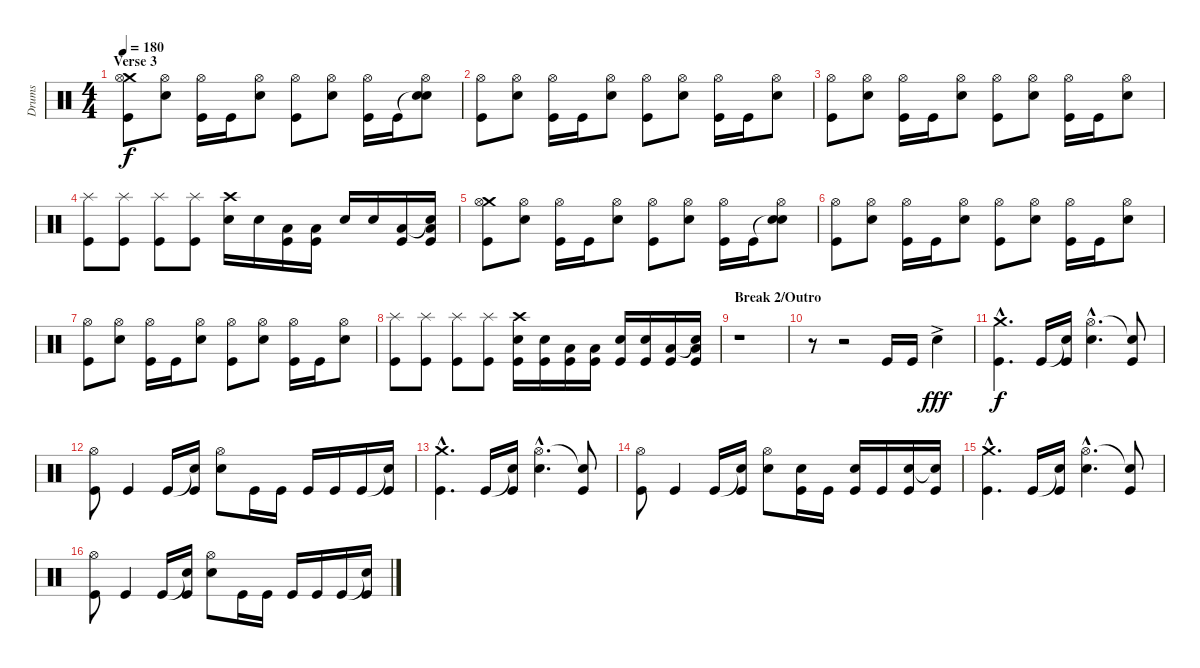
\track ("Drums" "Drums") {instrument percussion}
\staff {score}
\articulation defaults
\ts (4 4)
\section ("" "Verse 3")
\tempo 180
\clef neutral
\ks c
("Crash medium (hit)" "Hi-Hat (open)" "Kick (hit)").8{dy f} ("Hi-Hat (open)" "Electric Snare (hit)").8 ("Hi-Hat (open)" "Kick (hit)").16 "Kick (hit)".16 ("Hi-Hat (open)" "Electric Snare (hit)").8 ("Hi-Hat (open)" "Kick (hit)").8 ("Hi-Hat (open)" "Electric Snare (hit)").8 ("Hi-Hat (open)" "Kick (hit)").16 "Kick (hit)".16 ("Snare (hit)"{t} "Hi-Hat (open)" "Electric Snare (hit)").8 |
("Hi-Hat (open)" "Kick (hit)").8 ("Hi-Hat (open)" "Electric Snare (hit)").8 ("Hi-Hat (open)" "Kick (hit)").16 "Kick (hit)".16 ("Hi-Hat (open)" "Electric Snare (hit)").8 ("Hi-Hat (open)" "Kick (hit)").8 ("Hi-Hat (open)" "Electric Snare (hit)").8 ("Hi-Hat (open)" "Kick (hit)").16 "Kick (hit)".16 ("Hi-Hat (open)" "Electric Snare (hit)").8 |
("Hi-Hat (open)" "Kick (hit)").8 ("Hi-Hat (open)" "Electric Snare (hit)").8 ("Hi-Hat (open)" "Kick (hit)").16 "Kick (hit)".16 ("Hi-Hat (open)" "Electric Snare (hit)").8 ("Hi-Hat (open)" "Kick (hit)").8 ("Hi-Hat (open)" "Electric Snare (hit)").8 ("Hi-Hat (open)" "Kick (hit)").16 "Kick (hit)".16 ("Hi-Hat (open)" "Electric Snare (hit)").8 |
("Splash (hit)" "Kick (hit)").8 ("Splash (hit)" "Kick (hit)").8 ("Splash (hit)" "Kick (hit)").8 ("Splash (hit)" "Kick (hit)").8 ("Crash high (hit)" "Electric Snare (hit)").16 "Electric Snare (hit)".16 ("Low Floor Tom (hit)" "Kick (hit)").16 ("Low Floor Tom (hit)" "Kick (hit)").16 "Electric Snare (hit)".16 "Electric Snare (hit)".16 ("Low Floor Tom (hit)" "Kick (hit)").16 ("Snare (hit)"{t} "Low Floor Tom (hit)" "Kick (hit)").16 |
("Crash medium (hit)" "Hi-Hat (open)" "Kick (hit)").8 ("Hi-Hat (open)" "Electric Snare (hit)").8 ("Hi-Hat (open)" "Kick (hit)").16 "Kick (hit)".16 ("Hi-Hat (open)" "Electric Snare (hit)").8 ("Hi-Hat (open)" "Kick (hit)").8 ("Hi-Hat (open)" "Electric Snare (hit)").8 ("Hi-Hat (open)" "Kick (hit)").16 "Kick (hit)".16 ("Snare (hit)"{t} "Hi-Hat (open)" "Electric Snare (hit)").8 |
("Hi-Hat (open)" "Kick (hit)").8 ("Hi-Hat (open)" "Electric Snare (hit)").8 ("Hi-Hat (open)" "Kick (hit)").16 "Kick (hit)".16 ("Hi-Hat (open)" "Electric Snare (hit)").8 ("Hi-Hat (open)" "Kick (hit)").8 ("Hi-Hat (open)" "Electric Snare (hit)").8 ("Hi-Hat (open)" "Kick (hit)").16 "Kick (hit)".16 ("Hi-Hat (open)" "Electric Snare (hit)").8 |
("Hi-Hat (open)" "Kick (hit)").8 ("Hi-Hat (open)" "Electric Snare (hit)").8 ("Hi-Hat (open)" "Kick (hit)").16 "Kick (hit)".16 ("Hi-Hat (open)" "Electric Snare (hit)").8 ("Hi-Hat (open)" "Kick (hit)").8 ("Hi-Hat (open)" "Electric Snare (hit)").8 ("Hi-Hat (open)" "Kick (hit)").16 "Kick (hit)".16 ("Hi-Hat (open)" "Electric Snare (hit)").8 |
("Splash (hit)" "Kick (hit)").8 ("Splash (hit)" "Kick (hit)").8 ("Splash (hit)" "Kick (hit)").8 ("Splash (hit)" "Kick (hit)").8 ("Crash high (hit)" "Electric Snare (hit)" "Kick (hit)").16 ("Electric Snare (hit)" "Kick (hit)").16 ("Low Floor Tom (hit)" "Kick (hit)").16 ("Low Floor Tom (hit)" "Kick (hit)").16 ("Electric Snare (hit)" "Kick (hit)").16 ("Electric Snare (hit)" "Kick (hit)").16 ("Low Floor Tom (hit)" "Kick (hit)").16 ("Snare (hit)"{t} "Low Floor Tom (hit)" "Kick (hit)").16 |
\section ("" "Break 2/Outro")
r.1 |
r.8 r.2 "Kick (hit)".16 "Kick (hit)".16 "Electric Snare (hit)"{ac}.4{dy fff} |
("Crash medium (hit)"{hac} "Kick (hit)"{hac}).4{d dy f} "Kick (hit)".16 ("Snare (hit)"{t} "Kick (hit)").16 ("Hi-Hat (open)"{hac} "Electric Snare (hit)"{hac}).4{d} ("Snare (hit)"{t} "Kick (hit)").8 |
("Hi-Hat (open)" "Kick (hit)").8 "Kick (hit)".4 "Kick (hit)".16 ("Snare (hit)"{t} "Kick (hit)").16 ("Hi-Hat (open)" "Electric Snare (hit)").8 "Kick (hit)".16 "Kick (hit)".16 "Kick (hit)".16 "Kick (hit)".16 "Kick (hit)".16 ("Snare (hit)"{t} "Kick (hit)").16 |
("Crash medium (hit)"{hac} "Kick (hit)"{hac}).4{d} "Kick (hit)".16 ("Snare (hit)"{t} "Kick (hit)").16 ("Hi-Hat (open)"{hac} "Electric Snare (hit)"{hac}).4{d} ("Snare (hit)"{t} "Kick (hit)").8 |
("Hi-Hat (open)" "Kick (hit)").8 "Kick (hit)".4 "Kick (hit)".16 ("Snare (hit)"{t} "Kick (hit)").16 ("Hi-Hat (open)" "Electric Snare (hit)").8 ("Electric Snare (hit)" "Kick (hit)").16 "Kick (hit)".16 ("Electric Snare (hit)" "Kick (hit)").16 "Kick (hit)".16 ("Electric Snare (hit)" "Kick (hit)").16 ("Snare (hit)"{t} "Kick (hit)").16 |
("Crash medium (hit)"{hac} "Kick (hit)"{hac}).4{d} "Kick (hit)".16 ("Snare (hit)"{t} "Kick (hit)").16 ("Hi-Hat (open)"{hac} "Electric Snare (hit)"{hac}).4{d} ("Snare (hit)"{t} "Kick (hit)").8 |
("Hi-Hat (open)" "Kick (hit)").8 "Kick (hit)".4 "Kick (hit)".16 ("Snare (hit)"{t} "Kick (hit)").16 ("Hi-Hat (open)" "Electric Snare (hit)").8 "Kick (hit)".16 "Kick (hit)".16 "Kick (hit)".16 "Kick (hit)".16 "Kick (hit)".16 ("Snare (hit)"{t} "Kick (hit)").16
